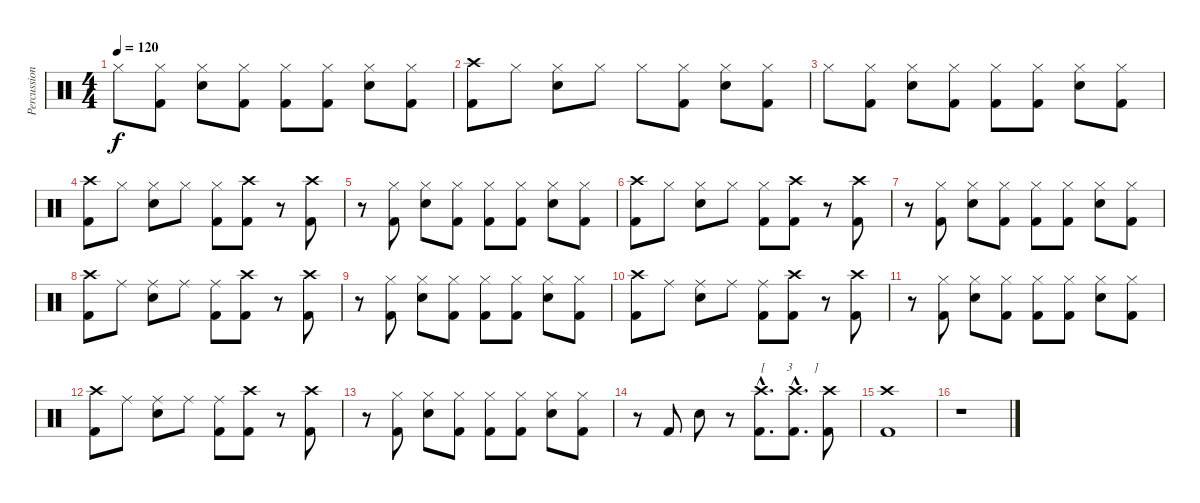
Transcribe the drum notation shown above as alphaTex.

\track ("Percussion" "Percussion") {instrument percussion}
\staff {score}
\articulation defaults
\ts (4 4)
\tempo 120
\clef neutral
\ks c "Hi-Hat (closed)".8{dy f}
("Hi-Hat (closed)" "Kick (hit) 2").8 ("Hi-Hat (closed)" "Snare (hit) 2").8 ("Hi-Hat (closed)" "Kick (hit) 2").8 ("Hi-Hat (closed)" "Kick (hit) 2").8 ("Hi-Hat (closed)" "Kick (hit) 2").8 ("Hi-Hat (closed)" "Snare (hit) 2").8 ("Hi-Hat (closed)" "Kick (hit) 2").8 |
("Crash high (hit)" "Kick (hit) 2").8 "Hi-Hat (closed)".8 ("Hi-Hat (closed)" "Snare (hit) 2").8 "Hi-Hat (closed)".8 "Hi-Hat (closed)".8 ("Hi-Hat (closed)" "Kick (hit) 2").8 ("Hi-Hat (closed)" "Snare (hit) 2").8 ("Hi-Hat (closed)" "Kick (hit) 2").8 |
"Hi-Hat (closed)".8 ("Hi-Hat (closed)" "Kick (hit) 2").8 ("Hi-Hat (closed)" "Snare (hit) 2").8 ("Hi-Hat (closed)" "Kick (hit) 2").8 ("Hi-Hat (closed)" "Kick (hit) 2").8 ("Hi-Hat (closed)" "Kick (hit) 2").8 ("Hi-Hat (closed)" "Snare (hit) 2").8 ("Hi-Hat (closed)" "Kick (hit) 2").8 |
("Crash high (hit)" "Kick (hit) 2").8 "Hi-Hat (closed)".8 ("Hi-Hat (closed)" "Snare (hit) 2").8 "Hi-Hat (closed)".8 ("Hi-Hat (closed)" "Kick (hit) 2").8 ("Crash high (hit)" "Kick (hit) 2").8 r.8 ("Crash high (hit)" "Kick (hit) 2").8 |
r.8 ("Hi-Hat (closed)" "Kick (hit) 2").8 ("Hi-Hat (closed)" "Snare (hit) 2").8 ("Hi-Hat (closed)" "Kick (hit) 2").8 ("Hi-Hat (closed)" "Kick (hit) 2").8 ("Hi-Hat (closed)" "Kick (hit) 2").8 ("Hi-Hat (closed)" "Snare (hit) 2").8 ("Hi-Hat (closed)" "Kick (hit) 2").8 |
("Crash high (hit)" "Kick (hit) 2").8 "Hi-Hat (closed)".8 ("Hi-Hat (closed)" "Snare (hit) 2").8 "Hi-Hat (closed)".8 ("Hi-Hat (closed)" "Kick (hit) 2").8 ("Crash high (hit)" "Kick (hit) 2").8 r.8 ("Crash high (hit)" "Kick (hit) 2").8 |
r.8 ("Hi-Hat (closed)" "Kick (hit) 2").8 ("Hi-Hat (closed)" "Snare (hit) 2").8 ("Hi-Hat (closed)" "Kick (hit) 2").8 ("Hi-Hat (closed)" "Kick (hit) 2").8 ("Hi-Hat (closed)" "Kick (hit) 2").8 ("Hi-Hat (closed)" "Snare (hit) 2").8 ("Hi-Hat (closed)" "Kick (hit) 2").8 |
("Crash high (hit)" "Kick (hit) 2").8 "Ride (middle)".8 ("Ride (middle)" "Snare (hit) 2").8 "Ride (middle)".8 ("Ride (middle)" "Kick (hit) 2").8 ("Crash high (hit)" "Kick (hit) 2").8 r.8 ("Crash high (hit)" "Kick (hit) 2").8 |
r.8 ("Hi-Hat (closed)" "Kick (hit) 2").8 ("Hi-Hat (closed)" "Snare (hit) 2").8 ("Hi-Hat (closed)" "Kick (hit) 2").8 ("Hi-Hat (closed)" "Kick (hit) 2").8 ("Hi-Hat (closed)" "Kick (hit) 2").8 ("Hi-Hat (closed)" "Snare (hit) 2").8 ("Hi-Hat (closed)" "Kick (hit) 2").8 |
("Crash high (hit)" "Kick (hit) 2").8 "Ride (middle)".8 ("Ride (middle)" "Snare (hit) 2").8 "Ride (middle)".8 ("Ride (middle)" "Kick (hit) 2").8 ("Crash high (hit)" "Kick (hit) 2").8 r.8 ("Crash high (hit)" "Kick (hit) 2").8 |
r.8 ("Hi-Hat (closed)" "Kick (hit) 2").8 ("Hi-Hat (closed)" "Snare (hit) 2").8 ("Hi-Hat (closed)" "Kick (hit) 2").8 ("Hi-Hat (closed)" "Kick (hit) 2").8 ("Hi-Hat (closed)" "Kick (hit) 2").8 ("Hi-Hat (closed)" "Snare (hit) 2").8 ("Hi-Hat (closed)" "Kick (hit) 2").8 |
("Crash high (hit)" "Kick (hit) 2").8 "Ride (middle)".8 ("Ride (middle)" "Snare (hit) 2").8 "Ride (middle)".8 ("Ride (middle)" "Kick (hit) 2").8 ("Crash high (hit)" "Kick (hit) 2").8 r.8 ("Crash high (hit)" "Kick (hit) 2").8 |
r.8 ("Hi-Hat (closed)" "Kick (hit) 2").8 ("Hi-Hat (closed)" "Snare (hit) 2").8 ("Hi-Hat (closed)" "Kick (hit) 2").8 ("Hi-Hat (closed)" "Kick (hit) 2").8 ("Hi-Hat (closed)" "Kick (hit) 2").8 ("Hi-Hat (closed)" "Snare (hit) 2").8 ("Hi-Hat (closed)" "Kick (hit) 2").8 |
r.8 "Kick (hit) 2".8 "Electric Snare (hit)".8 r.8 ("Crash high (hit)"{hac} "Kick (hit) 2"{hac}).8{d txt "[       3       ]"} ("Crash high (hit)"{hac} "Kick (hit) 2"{hac}).8{d} ("Crash high (hit)" "Kick (hit) 2").8 |
("Crash high (hit)" "Kick (hit) 2").1 |
r.1
